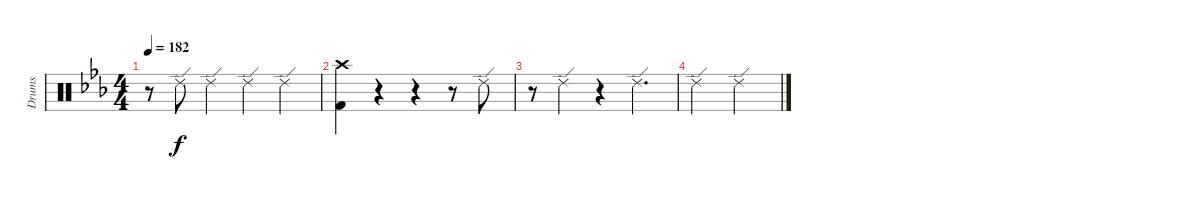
\track ("Drums" "Drums") {instrument percussion}
\staff {score}
\articulation defaults
\ts (4 4)
\tempo 182
\clef neutral
\ks eb
r.8{dy f} "Ride (edge) 2".8 "Ride (edge) 2".4 "Ride (edge) 2".4 "Ride (edge) 2".4 |
("Crash high (hit)" "Kick (hit) 2").4 r.4 r.4 r.8 "Ride (edge) 2".8 |
r.8 "Ride (edge) 2".4 r.4 "Ride (edge) 2".4{d} |
"Ride (edge) 2".2 "Ride (edge) 2".2
